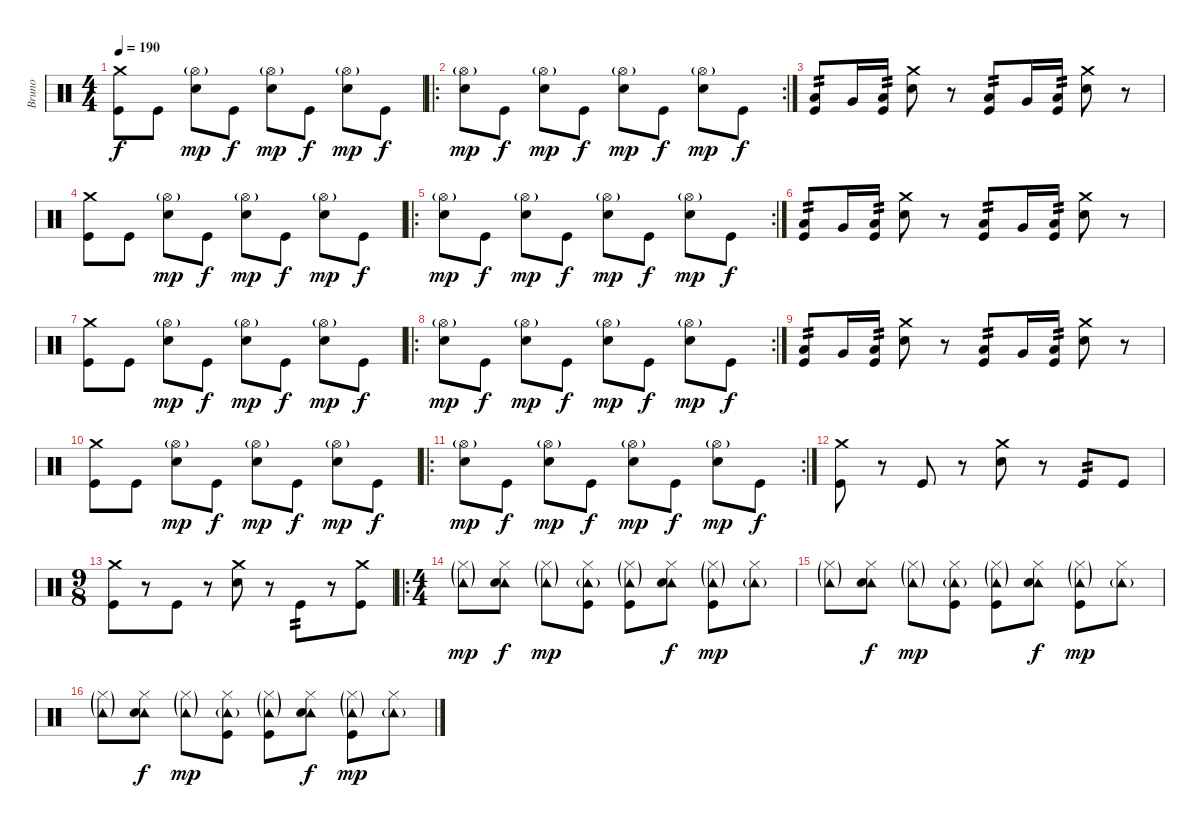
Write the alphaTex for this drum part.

\track ("Bruno" "Bruno") {instrument percussion}
\staff {score}
\articulation defaults
\ts (4 4)
\tempo 190
\clef neutral
\ks c
("Crash medium (hit)" "Kick (hit)").8{dy f} "Kick (hit)".8 ("Hi-Hat (open)"{g} "Electric Snare (hit)").8{dy mp} "Kick (hit)".8{dy f} ("Hi-Hat (open)"{g} "Electric Snare (hit)").8{dy mp} "Kick (hit)".8{dy f} ("Hi-Hat (open)"{g} "Electric Snare (hit)").8{dy mp} "Kick (hit)".8{dy f} |
\ro
\rc 2
("Hi-Hat (open)"{g} "Electric Snare (hit)").8{dy mp} "Kick (hit)".8{dy f} ("Hi-Hat (open)"{g} "Electric Snare (hit)").8{dy mp} "Kick (hit)".8{dy f} ("Hi-Hat (open)"{g} "Electric Snare (hit)").8{dy mp} "Kick (hit)".8{dy f} ("Hi-Hat (open)"{g} "Electric Snare (hit)").8{dy mp} "Kick (hit)".8{dy f} |
("Low Tom (hit)" "Kick (hit)").8{tp 2} "Very Low Tom (hit)".16 ("Low Floor Tom (hit)" "Kick (hit)").16{tp 2} ("Electric Snare (hit)" "Crash medium (hit)").8 r.8 ("Low Tom (hit)" "Kick (hit)").8{tp 2} "Very Low Tom (hit)".16 ("Low Floor Tom (hit)" "Kick (hit)").16{tp 2} ("Electric Snare (hit)" "Crash medium (hit)").8 r.8 |
("Crash medium (hit)" "Kick (hit)").8 "Kick (hit)".8 ("Hi-Hat (open)"{g} "Electric Snare (hit)").8{dy mp} "Kick (hit)".8{dy f} ("Hi-Hat (open)"{g} "Electric Snare (hit)").8{dy mp} "Kick (hit)".8{dy f} ("Hi-Hat (open)"{g} "Electric Snare (hit)").8{dy mp} "Kick (hit)".8{dy f} |
\ro
\rc 2
("Hi-Hat (open)"{g} "Electric Snare (hit)").8{dy mp} "Kick (hit)".8{dy f} ("Hi-Hat (open)"{g} "Electric Snare (hit)").8{dy mp} "Kick (hit)".8{dy f} ("Hi-Hat (open)"{g} "Electric Snare (hit)").8{dy mp} "Kick (hit)".8{dy f} ("Hi-Hat (open)"{g} "Electric Snare (hit)").8{dy mp} "Kick (hit)".8{dy f} |
("Low Tom (hit)" "Kick (hit)").8{tp 2} "Very Low Tom (hit)".16 ("Low Floor Tom (hit)" "Kick (hit)").16{tp 2} ("Electric Snare (hit)" "Crash medium (hit)").8 r.8 ("Low Tom (hit)" "Kick (hit)").8{tp 2} "Very Low Tom (hit)".16 ("Low Floor Tom (hit)" "Kick (hit)").16{tp 2} ("Electric Snare (hit)" "Crash medium (hit)").8 r.8 |
("Crash medium (hit)" "Kick (hit)").8 "Kick (hit)".8 ("Hi-Hat (open)"{g} "Electric Snare (hit)").8{dy mp} "Kick (hit)".8{dy f} ("Hi-Hat (open)"{g} "Electric Snare (hit)").8{dy mp} "Kick (hit)".8{dy f} ("Hi-Hat (open)"{g} "Electric Snare (hit)").8{dy mp} "Kick (hit)".8{dy f} |
\ro
\rc 2
("Hi-Hat (open)"{g} "Electric Snare (hit)").8{dy mp} "Kick (hit)".8{dy f} ("Hi-Hat (open)"{g} "Electric Snare (hit)").8{dy mp} "Kick (hit)".8{dy f} ("Hi-Hat (open)"{g} "Electric Snare (hit)").8{dy mp} "Kick (hit)".8{dy f} ("Hi-Hat (open)"{g} "Electric Snare (hit)").8{dy mp} "Kick (hit)".8{dy f} |
("Low Tom (hit)" "Kick (hit)").8{tp 2} "Very Low Tom (hit)".16 ("Low Floor Tom (hit)" "Kick (hit)").16{tp 2} ("Electric Snare (hit)" "Crash medium (hit)").8 r.8 ("Low Tom (hit)" "Kick (hit)").8{tp 2} "Very Low Tom (hit)".16 ("Low Floor Tom (hit)" "Kick (hit)").16{tp 2} ("Electric Snare (hit)" "Crash medium (hit)").8 r.8 |
("Crash medium (hit)" "Kick (hit)").8 "Kick (hit)".8 ("Hi-Hat (open)"{g} "Electric Snare (hit)").8{dy mp} "Kick (hit)".8{dy f} ("Hi-Hat (open)"{g} "Electric Snare (hit)").8{dy mp} "Kick (hit)".8{dy f} ("Hi-Hat (open)"{g} "Electric Snare (hit)").8{dy mp} "Kick (hit)".8{dy f} |
\ro
\rc 2
("Hi-Hat (open)"{g} "Electric Snare (hit)").8{dy mp} "Kick (hit)".8{dy f} ("Hi-Hat (open)"{g} "Electric Snare (hit)").8{dy mp} "Kick (hit)".8{dy f} ("Hi-Hat (open)"{g} "Electric Snare (hit)").8{dy mp} "Kick (hit)".8{dy f} ("Hi-Hat (open)"{g} "Electric Snare (hit)").8{dy mp} "Kick (hit)".8{dy f} |
("Crash medium (hit)" "Kick (hit)").8 r.8 "Kick (hit)".8 r.8 ("Crash medium (hit)" "Electric Snare (hit)").8 r.8 "Kick (hit)".8{tp 2} "Kick (hit)".8 |
\ts (9 8)
("Crash medium (hit)" "Kick (hit)").8 r.8 "Kick (hit)".8 r.8 ("Crash medium (hit)" "Electric Snare (hit)").8 r.8 "Kick (hit)".8{tp 2} r.8 ("Crash medium (hit)" "Kick (hit)").8 |
\ro
\ts (4 4)
("Tambourine (hit)"{g} "Hi-Hat (closed)"{g}).8{dy mp} ("Tambourine (hit)" "Hi-Hat (closed)" "Electric Snare (hit)").8{dy f} ("Tambourine (hit)"{g} "Hi-Hat (closed)"{g}).8{dy mp} ("Tambourine (hit)"{g} "Hi-Hat (closed)" "Kick (hit)").8 ("Tambourine (hit)"{g} "Hi-Hat (closed)"{g} "Kick (hit)").8 ("Tambourine (hit)" "Hi-Hat (closed)" "Electric Snare (hit)").8{dy f} ("Tambourine (hit)"{g} "Hi-Hat (closed)"{g} "Kick (hit)").8{dy mp} ("Tambourine (hit)"{g} "Hi-Hat (closed)").8 |
("Tambourine (hit)"{g} "Hi-Hat (closed)"{g}).8 ("Tambourine (hit)" "Hi-Hat (closed)" "Electric Snare (hit)").8{dy f} ("Tambourine (hit)"{g} "Hi-Hat (closed)"{g}).8{dy mp} ("Tambourine (hit)"{g} "Hi-Hat (closed)" "Kick (hit)").8 ("Tambourine (hit)"{g} "Hi-Hat (closed)"{g} "Kick (hit)").8 ("Tambourine (hit)" "Hi-Hat (closed)" "Electric Snare (hit)").8{dy f} ("Tambourine (hit)"{g} "Hi-Hat (closed)"{g} "Kick (hit)").8{dy mp} ("Tambourine (hit)"{g} "Hi-Hat (closed)").8 |
("Tambourine (hit)"{g} "Hi-Hat (closed)"{g}).8 ("Tambourine (hit)" "Hi-Hat (closed)" "Electric Snare (hit)").8{dy f} ("Tambourine (hit)"{g} "Hi-Hat (closed)"{g}).8{dy mp} ("Tambourine (hit)"{g} "Hi-Hat (closed)" "Kick (hit)").8 ("Tambourine (hit)"{g} "Hi-Hat (closed)"{g} "Kick (hit)").8 ("Tambourine (hit)" "Hi-Hat (closed)" "Electric Snare (hit)").8{dy f} ("Tambourine (hit)"{g} "Hi-Hat (closed)"{g} "Kick (hit)").8{dy mp} ("Tambourine (hit)"{g} "Hi-Hat (closed)").8
